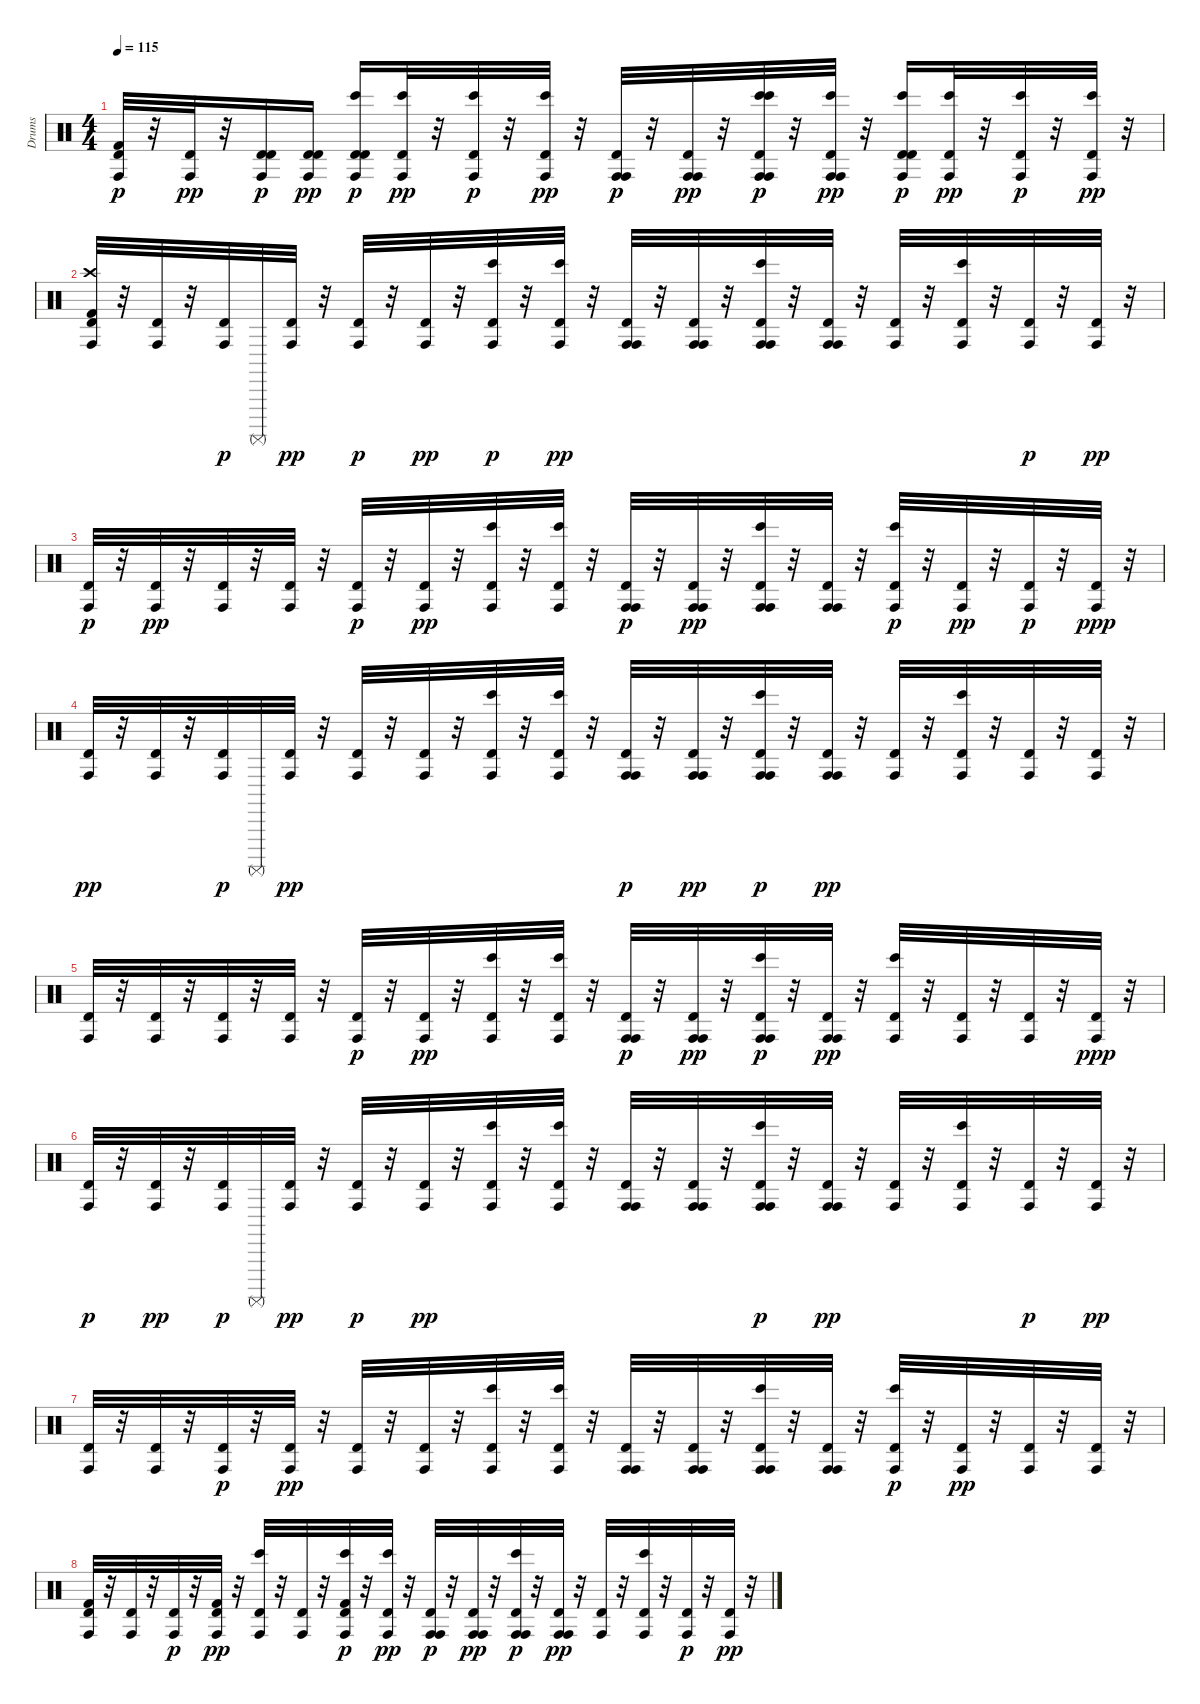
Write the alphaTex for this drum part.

\track ("Drums" "Drums") {instrument percussion}
\staff {score}
\articulation defaults
\ts (4 4)
\tempo 115
\clef neutral
\ks c
("Conga high (hit)" "Kick (hit) 2" "Timbale high (hit)").32{dy p} r.32 ("Conga high (hit)" "Timbale high (hit)").32{dy pp} r.32 ("Conga high (hit)" "Timbale high (hit)" "Timbale high (hit)").16{dy p} ("Conga high (hit)" "Timbale high (hit)" "Timbale high (hit)").16{dy pp} ("Conga high (hit)" "Timbale high (hit)" "Bongo High (hit)" "Timbale high (hit)").16{dy p} ("Conga high (hit)" "Bongo High (hit)" "Timbale high (hit)").32{dy pp} r.32 ("Conga high (hit)" "Bongo High (hit)" "Timbale high (hit)").32{dy p} r.32 ("Conga high (hit)" "Bongo High (hit)" "Timbale high (hit)").32{dy pp} r.32 ("Conga high (hit)" "Conga high (hit)" "Timbale high (hit)").32{dy p} r.32 ("Conga high (hit)" "Conga high (hit)" "Timbale high (hit)").32{dy pp} r.32 ("Conga high (hit)" "Conga high (hit)" "Bongo High (hit)" "Bongo High (hit)" "Timbale high (hit)").32{dy p} r.32 ("Conga high (hit)" "Conga high (hit)" "Bongo High (hit)" "Timbale high (hit)").32{dy pp} r.32 ("Conga high (hit)" "Bongo High (hit)" "Timbale high (hit)" "Timbale high (hit)").16{dy p} ("Conga high (hit)" "Bongo High (hit)" "Timbale high (hit)").32{dy pp} r.32 ("Conga high (hit)" "Bongo High (hit)" "Timbale high (hit)").32{dy p} r.32 ("Conga high (hit)" "Bongo High (hit)" "Timbale high (hit)").32{dy pp} r.32 |
("Conga high (hit)" "Crash high (hit)" "Kick (hit) 2" "Timbale high (hit)").32 r.32 ("Conga high (hit)" "Timbale high (hit)").32 r.32 ("Conga high (hit)" "Timbale high (hit)").32{dy p} "Surdo (mute)".32 ("Conga high (hit)" "Timbale high (hit)").32{dy pp} r.32 ("Conga high (hit)" "Timbale high (hit)").32{dy p} r.32 ("Conga high (hit)" "Timbale high (hit)").32{dy pp} r.32 ("Conga high (hit)" "Bongo High (hit)" "Timbale high (hit)").32{dy p} r.32 ("Conga high (hit)" "Bongo High (hit)" "Timbale high (hit)").32{dy pp} r.32 ("Conga high (hit)" "Conga high (hit)" "Timbale high (hit)").32 r.32 ("Conga high (hit)" "Conga high (hit)" "Timbale high (hit)").32 r.32 ("Conga high (hit)" "Conga high (hit)" "Bongo High (hit)" "Timbale high (hit)").32 r.32 ("Conga high (hit)" "Conga high (hit)" "Timbale high (hit)").32 r.32 ("Conga high (hit)" "Timbale high (hit)").32 r.32 ("Conga high (hit)" "Bongo High (hit)" "Timbale high (hit)").32 r.32 ("Conga high (hit)" "Timbale high (hit)").32{dy p} r.32 ("Conga high (hit)" "Timbale high (hit)").32{dy pp} r.32 |
("Conga high (hit)" "Timbale high (hit)").32{dy p} r.32 ("Conga high (hit)" "Timbale high (hit)").32{dy pp} r.32 ("Conga high (hit)" "Timbale high (hit)").32 r.32 ("Conga high (hit)" "Timbale high (hit)").32 r.32 ("Conga high (hit)" "Timbale high (hit)").32{dy p} r.32 ("Conga high (hit)" "Timbale high (hit)").32{dy pp} r.32 ("Conga high (hit)" "Bongo High (hit)" "Timbale high (hit)").32 r.32 ("Conga high (hit)" "Bongo High (hit)" "Timbale high (hit)").32 r.32 ("Conga high (hit)" "Conga high (hit)" "Timbale high (hit)").32{dy p} r.32 ("Conga high (hit)" "Conga high (hit)" "Timbale high (hit)").32{dy pp} r.32 ("Conga high (hit)" "Conga high (hit)" "Bongo High (hit)" "Timbale high (hit)").32 r.32 ("Conga high (hit)" "Conga high (hit)" "Timbale high (hit)").32 r.32 ("Conga high (hit)" "Bongo High (hit)" "Timbale high (hit)").32{dy p} r.32 ("Conga high (hit)" "Timbale high (hit)").32{dy pp} r.32 ("Conga high (hit)" "Timbale high (hit)").32{dy p} r.32 ("Conga high (hit)" "Timbale high (hit)").32{dy ppp} r.32 |
("Conga high (hit)" "Timbale high (hit)").32{dy pp} r.32 ("Conga high (hit)" "Timbale high (hit)").32 r.32 ("Conga high (hit)" "Timbale high (hit)").32{dy p} "Surdo (mute)".32 ("Conga high (hit)" "Timbale high (hit)").32{dy pp} r.32 ("Conga high (hit)" "Timbale high (hit)").32 r.32 ("Conga high (hit)" "Timbale high (hit)").32 r.32 ("Conga high (hit)" "Bongo High (hit)" "Timbale high (hit)").32 r.32 ("Conga high (hit)" "Bongo High (hit)" "Timbale high (hit)").32 r.32 ("Conga high (hit)" "Conga high (hit)" "Timbale high (hit)").32{dy p} r.32 ("Conga high (hit)" "Conga high (hit)" "Timbale high (hit)").32{dy pp} r.32 ("Conga high (hit)" "Conga high (hit)" "Bongo High (hit)" "Timbale high (hit)").32{dy p} r.32 ("Conga high (hit)" "Conga high (hit)" "Timbale high (hit)").32{dy pp} r.32 ("Conga high (hit)" "Timbale high (hit)").32 r.32 ("Conga high (hit)" "Bongo High (hit)" "Timbale high (hit)").32 r.32 ("Conga high (hit)" "Timbale high (hit)").32 r.32 ("Conga high (hit)" "Timbale high (hit)").32 r.32 |
("Conga high (hit)" "Timbale high (hit)").32 r.32 ("Conga high (hit)" "Timbale high (hit)").32 r.32 ("Conga high (hit)" "Timbale high (hit)").32 r.32 ("Conga high (hit)" "Timbale high (hit)").32 r.32 ("Conga high (hit)" "Timbale high (hit)").32{dy p} r.32 ("Conga high (hit)" "Timbale high (hit)").32{dy pp} r.32 ("Conga high (hit)" "Bongo High (hit)" "Timbale high (hit)").32 r.32 ("Conga high (hit)" "Bongo High (hit)" "Timbale high (hit)").32 r.32 ("Conga high (hit)" "Conga high (hit)" "Timbale high (hit)").32{dy p} r.32 ("Conga high (hit)" "Conga high (hit)" "Timbale high (hit)").32{dy pp} r.32 ("Conga high (hit)" "Conga high (hit)" "Bongo High (hit)" "Timbale high (hit)").32{dy p} r.32 ("Conga high (hit)" "Conga high (hit)" "Timbale high (hit)").32{dy pp} r.32 ("Conga high (hit)" "Bongo High (hit)" "Timbale high (hit)").32 r.32 ("Conga high (hit)" "Timbale high (hit)").32 r.32 ("Conga high (hit)" "Timbale high (hit)").32 r.32 ("Conga high (hit)" "Timbale high (hit)").32{dy ppp} r.32 |
("Conga high (hit)" "Timbale high (hit)").32{dy p} r.32 ("Conga high (hit)" "Timbale high (hit)").32{dy pp} r.32 ("Conga high (hit)" "Timbale high (hit)").32{dy p} "Surdo (mute)".32 ("Conga high (hit)" "Timbale high (hit)").32{dy pp} r.32 ("Conga high (hit)" "Timbale high (hit)").32{dy p} r.32 ("Conga high (hit)" "Timbale high (hit)").32{dy pp} r.32 ("Conga high (hit)" "Bongo High (hit)" "Timbale high (hit)").32 r.32 ("Conga high (hit)" "Bongo High (hit)" "Timbale high (hit)").32 r.32 ("Conga high (hit)" "Conga high (hit)" "Timbale high (hit)").32 r.32 ("Conga high (hit)" "Conga high (hit)" "Timbale high (hit)").32 r.32 ("Conga high (hit)" "Conga high (hit)" "Bongo High (hit)" "Timbale high (hit)").32{dy p} r.32 ("Conga high (hit)" "Conga high (hit)" "Timbale high (hit)").32{dy pp} r.32 ("Conga high (hit)" "Timbale high (hit)").32 r.32 ("Conga high (hit)" "Bongo High (hit)" "Timbale high (hit)").32 r.32 ("Conga high (hit)" "Timbale high (hit)").32{dy p} r.32 ("Conga high (hit)" "Timbale high (hit)").32{dy pp} r.32 |
("Conga high (hit)" "Timbale high (hit)").32 r.32 ("Conga high (hit)" "Timbale high (hit)").32 r.32 ("Conga high (hit)" "Timbale high (hit)").32{dy p} r.32 ("Conga high (hit)" "Timbale high (hit)").32{dy pp} r.32 ("Conga high (hit)" "Timbale high (hit)").32 r.32 ("Conga high (hit)" "Timbale high (hit)").32 r.32 ("Conga high (hit)" "Bongo High (hit)" "Timbale high (hit)").32 r.32 ("Conga high (hit)" "Bongo High (hit)" "Timbale high (hit)").32 r.32 ("Conga high (hit)" "Conga high (hit)" "Timbale high (hit)").32 r.32 ("Conga high (hit)" "Conga high (hit)" "Timbale high (hit)").32 r.32 ("Conga high (hit)" "Conga high (hit)" "Bongo High (hit)" "Timbale high (hit)").32 r.32 ("Conga high (hit)" "Conga high (hit)" "Timbale high (hit)").32 r.32 ("Conga high (hit)" "Bongo High (hit)" "Timbale high (hit)").32{dy p} r.32 ("Conga high (hit)" "Timbale high (hit)").32{dy pp} r.32 ("Conga high (hit)" "Timbale high (hit)").32 r.32 ("Conga high (hit)" "Timbale high (hit)").32 r.32 |
("Conga high (hit)" "Kick (hit) 2" "Timbale high (hit)").32 r.32 ("Conga high (hit)" "Timbale high (hit)").32 r.32 ("Conga high (hit)" "Timbale high (hit)").32{dy p} r.32 ("Conga high (hit)" "Kick (hit) 2" "Timbale high (hit)").32{dy pp} r.32 ("Conga high (hit)" "Bongo High (hit)" "Timbale high (hit)").32 r.32 ("Conga high (hit)" "Timbale high (hit)").32 r.32 ("Conga high (hit)" "Bongo High (hit)" "Kick (hit) 2" "Timbale high (hit)").32{dy p} r.32 ("Conga high (hit)" "Bongo High (hit)" "Timbale high (hit)").32{dy pp} r.32 ("Conga high (hit)" "Conga high (hit)" "Timbale high (hit)").32{dy p} r.32 ("Conga high (hit)" "Conga high (hit)" "Timbale high (hit)").32{dy pp} r.32 ("Conga high (hit)" "Conga high (hit)" "Bongo High (hit)" "Timbale high (hit)").32{dy p} r.32 ("Conga high (hit)" "Conga high (hit)" "Timbale high (hit)").32{dy pp} r.32 ("Conga high (hit)" "Timbale high (hit)").32 r.32 ("Conga high (hit)" "Bongo High (hit)" "Timbale high (hit)").32 r.32 ("Conga high (hit)" "Timbale high (hit)").32{dy p} r.32 ("Conga high (hit)" "Timbale high (hit)").32{dy pp} r.32
